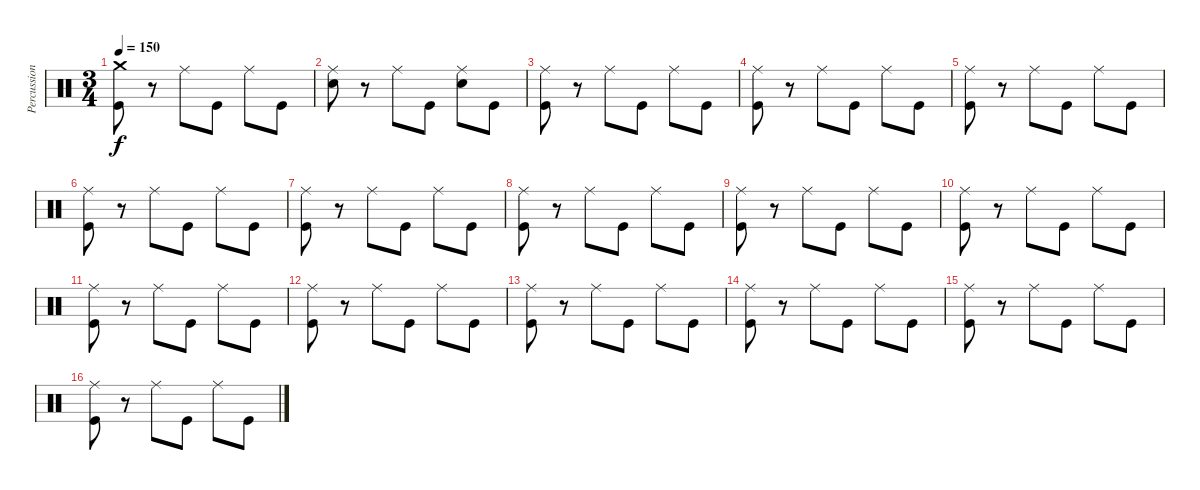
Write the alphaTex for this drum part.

\track ("Percussion" "Percussion") {instrument percussion}
\staff {score}
\articulation defaults
\ts (3 4)
\tempo 150
\clef neutral
\ks c
("Crash medium (hit)" "Kick (hit)").8{dy f} r.8 "Ride (middle)".8 "Kick (hit)".8 "Ride (middle)".8 "Kick (hit)".8 |
("Ride (middle)" "Snare (hit) 2").8 r.8 "Ride (middle)".8 "Kick (hit)".8 ("Ride (middle)" "Snare (hit) 2").8 "Kick (hit)".8 |
("Ride (middle)" "Kick (hit)").8 r.8 "Ride (middle)".8 "Kick (hit)".8 "Ride (middle)".8 "Kick (hit)".8 |
("Ride (middle)" "Kick (hit)").8 r.8 "Ride (middle)".8 "Kick (hit)".8 "Ride (middle)".8 "Kick (hit)".8 |
("Ride (middle)" "Kick (hit)").8 r.8 "Ride (middle)".8 "Kick (hit)".8 "Ride (middle)".8 "Kick (hit)".8 |
("Ride (middle)" "Kick (hit)").8 r.8 "Ride (middle)".8 "Kick (hit)".8 "Ride (middle)".8 "Kick (hit)".8 |
("Ride (middle)" "Kick (hit)").8 r.8 "Ride (middle)".8 "Kick (hit)".8 "Ride (middle)".8 "Kick (hit)".8 |
("Ride (middle)" "Kick (hit)").8 r.8 "Ride (middle)".8 "Kick (hit)".8 "Ride (middle)".8 "Kick (hit)".8 |
("Ride (middle)" "Kick (hit)").8 r.8 "Ride (middle)".8 "Kick (hit)".8 "Ride (middle)".8 "Kick (hit)".8 |
("Ride (middle)" "Kick (hit)").8 r.8 "Ride (middle)".8 "Kick (hit)".8 "Ride (middle)".8 "Kick (hit)".8 |
("Ride (middle)" "Kick (hit)").8 r.8 "Ride (middle)".8 "Kick (hit)".8 "Ride (middle)".8 "Kick (hit)".8 |
("Ride (middle)" "Kick (hit)").8 r.8 "Ride (middle)".8 "Kick (hit)".8 "Ride (middle)".8 "Kick (hit)".8 |
("Ride (middle)" "Kick (hit)").8 r.8 "Ride (middle)".8 "Kick (hit)".8 "Ride (middle)".8 "Kick (hit)".8 |
("Ride (middle)" "Kick (hit)").8 r.8 "Ride (middle)".8 "Kick (hit)".8 "Ride (middle)".8 "Kick (hit)".8 |
("Ride (middle)" "Kick (hit)").8 r.8 "Ride (middle)".8 "Kick (hit)".8 "Ride (middle)".8 "Kick (hit)".8 |
("Ride (middle)" "Kick (hit)").8 r.8 "Ride (middle)".8 "Kick (hit)".8 "Ride (middle)".8 "Kick (hit)".8
